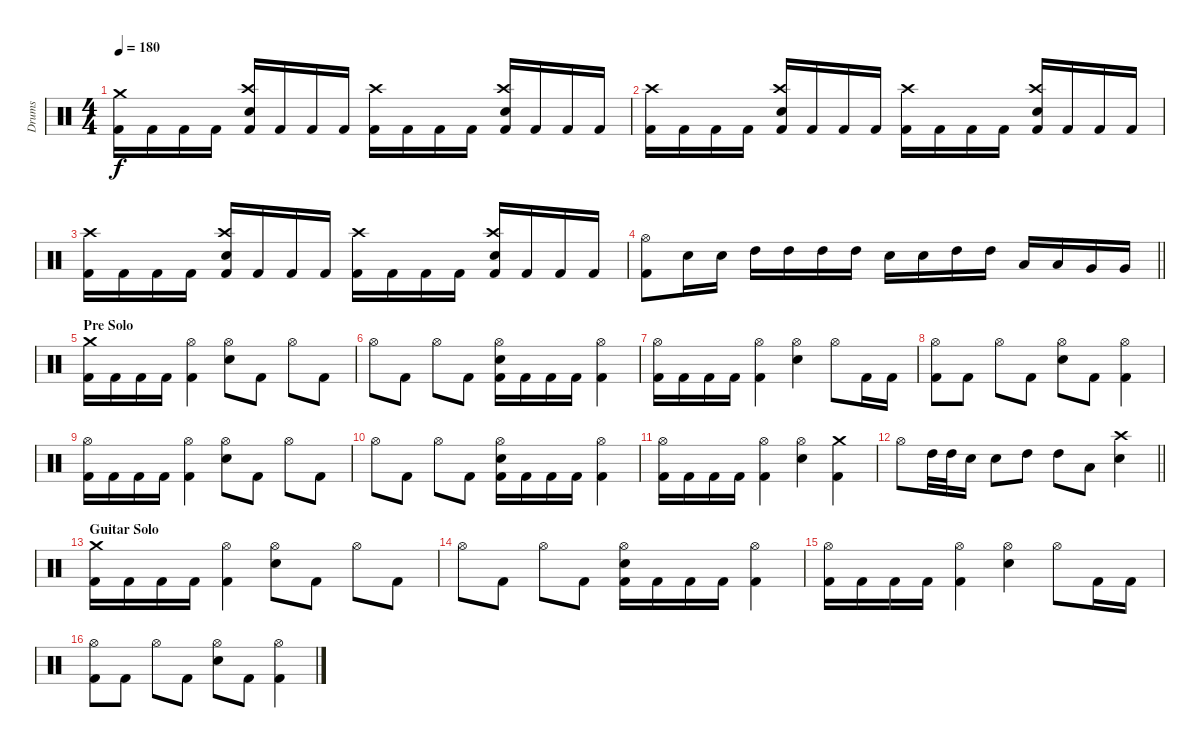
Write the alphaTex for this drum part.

\track ("Drums" "Drums") {instrument percussion}
\staff {score}
\articulation defaults
\ts (4 4)
\tempo 180
\clef neutral
\ks c
("Crash medium (hit)" "Kick (hit) 2").16{dy f} "Kick (hit) 2".16 "Kick (hit) 2".16 "Kick (hit) 2".16 ("Crash high (hit)" "Snare (hit) 2" "Kick (hit) 2").16 "Kick (hit) 2".16 "Kick (hit) 2".16 "Kick (hit) 2".16 ("Crash high (hit)" "Kick (hit) 2").16 "Kick (hit) 2".16 "Kick (hit) 2".16 "Kick (hit) 2".16 ("Crash high (hit)" "Snare (hit) 2" "Kick (hit) 2").16 "Kick (hit) 2".16 "Kick (hit) 2".16 "Kick (hit) 2".16 |
("Crash high (hit)" "Kick (hit) 2").16 "Kick (hit) 2".16 "Kick (hit) 2".16 "Kick (hit) 2".16 ("Crash high (hit)" "Snare (hit) 2" "Kick (hit) 2").16 "Kick (hit) 2".16 "Kick (hit) 2".16 "Kick (hit) 2".16 ("Crash high (hit)" "Kick (hit) 2").16 "Kick (hit) 2".16 "Kick (hit) 2".16 "Kick (hit) 2".16 ("Crash high (hit)" "Snare (hit) 2" "Kick (hit) 2").16 "Kick (hit) 2".16 "Kick (hit) 2".16 "Kick (hit) 2".16 |
("Crash high (hit)" "Kick (hit) 2").16 "Kick (hit) 2".16 "Kick (hit) 2".16 "Kick (hit) 2".16 ("Crash high (hit)" "Snare (hit) 2" "Kick (hit) 2").16 "Kick (hit) 2".16 "Kick (hit) 2".16 "Kick (hit) 2".16 ("Crash high (hit)" "Kick (hit) 2").16 "Kick (hit) 2".16 "Kick (hit) 2".16 "Kick (hit) 2".16 ("Crash high (hit)" "Snare (hit) 2" "Kick (hit) 2").16 "Kick (hit) 2".16 "Kick (hit) 2".16 "Kick (hit) 2".16 |
\barLineRight lightlight
("Hi-Hat (open)" "Kick (hit) 2").8 "Snare (hit) 2".16 "Snare (hit) 2".16 "High Tom (hit)".16 "High Tom (hit)".16 "High Tom (hit)".16 "High Tom (hit)".16 "Snare (hit) 2".16 "Snare (hit) 2".16 "High Tom (hit)".16 "High Tom (hit)".16 "Low Tom (hit)".16 "Low Tom (hit)".16 "Very Low Tom (hit)".16 "Very Low Tom (hit)".16 |
\section ("" "Pre Solo")
("Crash medium (hit)" "Kick (hit) 2").16 "Kick (hit) 2".16 "Kick (hit) 2".16 "Kick (hit) 2".16 ("Hi-Hat (open)" "Kick (hit) 2").4 ("Hi-Hat (open)" "Snare (hit) 2").8 "Kick (hit) 2".8 "Hi-Hat (open)".8 "Kick (hit) 2".8 |
"Hi-Hat (open)".8 "Kick (hit) 2".8 "Hi-Hat (open)".8 "Kick (hit) 2".8 ("Hi-Hat (open)" "Snare (hit) 2" "Kick (hit) 2").16 "Kick (hit) 2".16 "Kick (hit) 2".16 "Kick (hit) 2".16 ("Hi-Hat (open)" "Kick (hit) 2").4 |
("Hi-Hat (open)" "Kick (hit) 2").16 "Kick (hit) 2".16 "Kick (hit) 2".16 "Kick (hit) 2".16 ("Hi-Hat (open)" "Kick (hit) 2").4 ("Hi-Hat (open)" "Snare (hit) 2").4 "Hi-Hat (open)".8 "Kick (hit) 2".16 "Kick (hit) 2".16 |
("Hi-Hat (open)" "Kick (hit) 2").8 "Kick (hit) 2".8 "Hi-Hat (open)".8 "Kick (hit) 2".8 ("Hi-Hat (open)" "Snare (hit) 2").8 "Kick (hit) 2".8 ("Hi-Hat (open)" "Kick (hit) 2").4 |
("Hi-Hat (open)" "Kick (hit) 2").16 "Kick (hit) 2".16 "Kick (hit) 2".16 "Kick (hit) 2".16 ("Hi-Hat (open)" "Kick (hit) 2").4 ("Hi-Hat (open)" "Snare (hit) 2").8 "Kick (hit) 2".8 "Hi-Hat (open)".8 "Kick (hit) 2".8 |
"Hi-Hat (open)".8 "Kick (hit) 2".8 "Hi-Hat (open)".8 "Kick (hit) 2".8 ("Hi-Hat (open)" "Snare (hit) 2" "Kick (hit) 2").16 "Kick (hit) 2".16 "Kick (hit) 2".16 "Kick (hit) 2".16 ("Hi-Hat (open)" "Kick (hit) 2").4 |
("Hi-Hat (open)" "Kick (hit) 2").16 "Kick (hit) 2".16 "Kick (hit) 2".16 "Kick (hit) 2".16 ("Hi-Hat (open)" "Kick (hit) 2").4 ("Hi-Hat (open)" "Snare (hit) 2").4 ("Crash medium (hit)" "Kick (hit) 2").4 |
\barLineRight lightlight "Hi-Hat (open)".8 "High Tom (hit)".32 "High Tom (hit)".32 "Snare (hit) 2".16 "Snare (hit) 2".8 "High Tom (hit)".8 "High Tom (hit)".8 "Low Tom (hit)".8
("Crash high (hit)" "Snare (hit) 2").4 |
\section ("" "Guitar Solo")
("Crash medium (hit)" "Kick (hit) 2").16 "Kick (hit) 2".16 "Kick (hit) 2".16 "Kick (hit) 2".16 ("Hi-Hat (open)" "Kick (hit) 2").4 ("Hi-Hat (open)" "Snare (hit) 2").8 "Kick (hit) 2".8 "Hi-Hat (open)".8 "Kick (hit) 2".8 |
"Hi-Hat (open)".8 "Kick (hit) 2".8 "Hi-Hat (open)".8 "Kick (hit) 2".8 ("Hi-Hat (open)" "Snare (hit) 2" "Kick (hit) 2").16 "Kick (hit) 2".16 "Kick (hit) 2".16 "Kick (hit) 2".16 ("Hi-Hat (open)" "Kick (hit) 2").4 |
("Hi-Hat (open)" "Kick (hit) 2").16 "Kick (hit) 2".16 "Kick (hit) 2".16 "Kick (hit) 2".16 ("Hi-Hat (open)" "Kick (hit) 2").4 ("Hi-Hat (open)" "Snare (hit) 2").4 "Hi-Hat (open)".8 "Kick (hit) 2".16 "Kick (hit) 2".16 |
("Hi-Hat (open)" "Kick (hit) 2").8 "Kick (hit) 2".8 "Hi-Hat (open)".8 "Kick (hit) 2".8 ("Hi-Hat (open)" "Snare (hit) 2").8 "Kick (hit) 2".8 ("Hi-Hat (open)" "Kick (hit) 2").4
